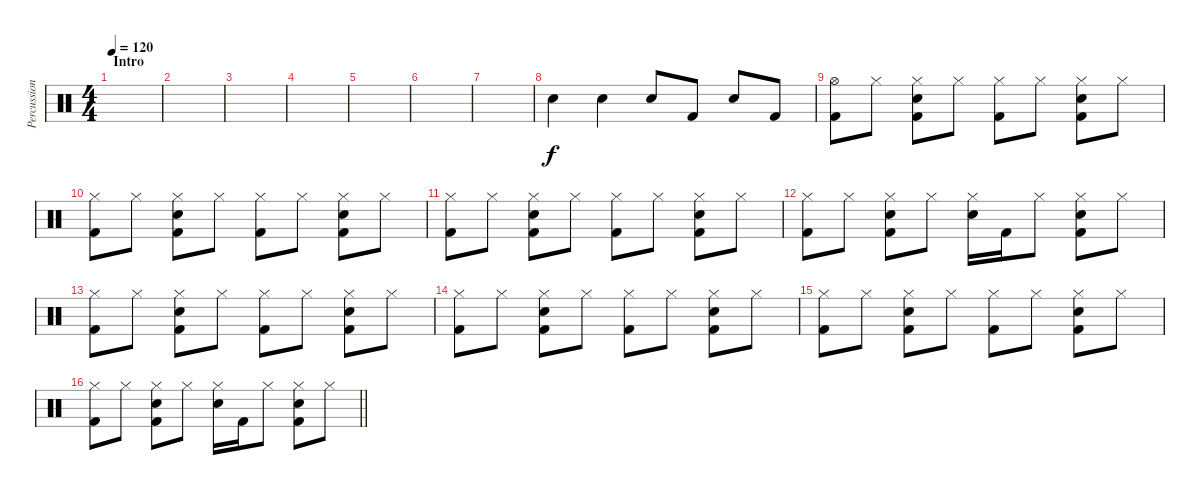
\track ("Percussion" "Percussion") {instrument percussion}
\staff {score}
\articulation defaults
\ts (4 4)
\section ("" "Intro")
\tempo 120
\clef neutral
\ks c
|
|
|
|
|
|
|
"Electric Snare (hit)".4 "Electric Snare (hit)".4 "Electric Snare (hit)".8 "Kick (hit) 2".8 "Electric Snare (hit)".8 "Kick (hit) 2".8 |
("Kick (hit) 2" "Hi-Hat (open)").8 "Hi-Hat (closed)".8 ("Kick (hit) 2" "Electric Snare (hit)" "Hi-Hat (closed)").8 "Hi-Hat (closed)".8 ("Kick (hit) 2" "Hi-Hat (closed)").8 "Hi-Hat (closed)".8 ("Kick (hit) 2" "Electric Snare (hit)" "Hi-Hat (closed)").8 "Hi-Hat (closed)".8 |
("Kick (hit) 2" "Hi-Hat (closed)").8 "Hi-Hat (closed)".8 ("Kick (hit) 2" "Electric Snare (hit)" "Hi-Hat (closed)").8 "Hi-Hat (closed)".8 ("Kick (hit) 2" "Hi-Hat (closed)").8 "Hi-Hat (closed)".8 ("Kick (hit) 2" "Electric Snare (hit)" "Hi-Hat (closed)").8 "Hi-Hat (closed)".8 |
("Kick (hit) 2" "Hi-Hat (closed)").8 "Hi-Hat (closed)".8 ("Kick (hit) 2" "Electric Snare (hit)" "Hi-Hat (closed)").8 "Hi-Hat (closed)".8 ("Kick (hit) 2" "Hi-Hat (closed)").8 "Hi-Hat (closed)".8 ("Kick (hit) 2" "Electric Snare (hit)" "Hi-Hat (closed)").8 "Hi-Hat (closed)".8 |
("Kick (hit) 2" "Hi-Hat (closed)").8 "Hi-Hat (closed)".8 ("Kick (hit) 2" "Electric Snare (hit)" "Hi-Hat (closed)").8 "Hi-Hat (closed)".8 ("Electric Snare (hit)" "Hi-Hat (closed)").16 "Kick (hit) 2".16 "Hi-Hat (closed)".8 ("Kick (hit) 2" "Electric Snare (hit)" "Hi-Hat (closed)").8 "Hi-Hat (closed)".8 |
("Kick (hit) 2" "Hi-Hat (closed)").8 "Hi-Hat (closed)".8 ("Kick (hit) 2" "Electric Snare (hit)" "Hi-Hat (closed)").8 "Hi-Hat (closed)".8 ("Kick (hit) 2" "Hi-Hat (closed)").8 "Hi-Hat (closed)".8 ("Kick (hit) 2" "Electric Snare (hit)" "Hi-Hat (closed)").8 "Hi-Hat (closed)".8 |
("Kick (hit) 2" "Hi-Hat (closed)").8 "Hi-Hat (closed)".8 ("Kick (hit) 2" "Electric Snare (hit)" "Hi-Hat (closed)").8 "Hi-Hat (closed)".8 ("Kick (hit) 2" "Hi-Hat (closed)").8 "Hi-Hat (closed)".8 ("Kick (hit) 2" "Electric Snare (hit)" "Hi-Hat (closed)").8 "Hi-Hat (closed)".8 |
("Kick (hit) 2" "Hi-Hat (closed)").8 "Hi-Hat (closed)".8 ("Kick (hit) 2" "Electric Snare (hit)" "Hi-Hat (closed)").8 "Hi-Hat (closed)".8 ("Kick (hit) 2" "Hi-Hat (closed)").8 "Hi-Hat (closed)".8 ("Kick (hit) 2" "Electric Snare (hit)" "Hi-Hat (closed)").8 "Hi-Hat (closed)".8 |
\barLineRight lightlight
("Kick (hit) 2" "Hi-Hat (closed)").8 "Hi-Hat (closed)".8 ("Kick (hit) 2" "Electric Snare (hit)" "Hi-Hat (closed)").8 "Hi-Hat (closed)".8 ("Electric Snare (hit)" "Hi-Hat (closed)").16 "Kick (hit) 2".16 "Hi-Hat (closed)".8 ("Kick (hit) 2" "Electric Snare (hit)" "Hi-Hat (closed)").8 "Hi-Hat (closed)".8
